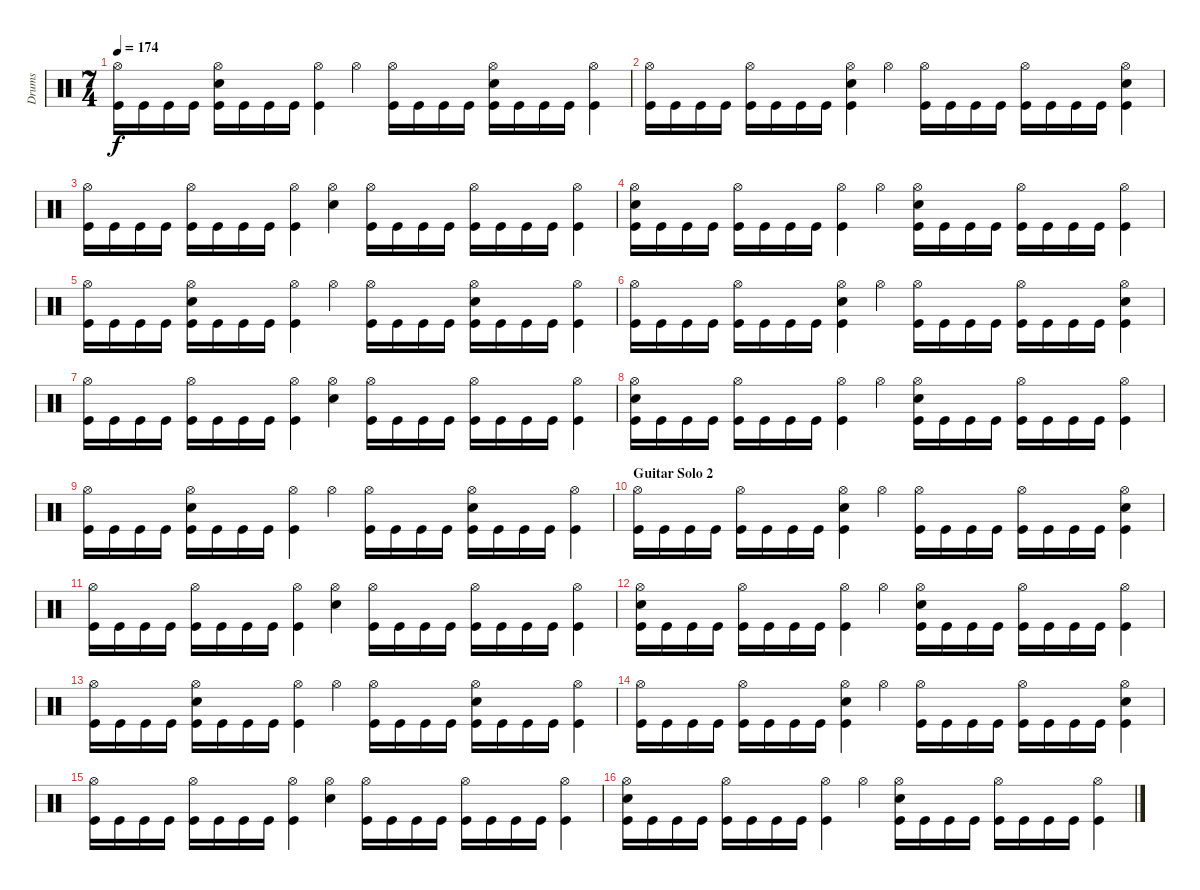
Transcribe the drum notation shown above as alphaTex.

\track ("Drums" "Drums") {instrument percussion}
\staff {score}
\articulation defaults
\ts (7 4)
\tempo 174
\clef neutral
\ks c
("Hi-Hat (open)" "Kick (hit)").16{dy f} "Kick (hit)".16 "Kick (hit)".16 "Kick (hit)".16 ("Hi-Hat (open)" "Electric Snare (hit)" "Kick (hit)").16 "Kick (hit)".16 "Kick (hit)".16 "Kick (hit)".16 ("Hi-Hat (open)" "Kick (hit)").4 "Hi-Hat (open)".4 ("Hi-Hat (open)" "Kick (hit)").16 "Kick (hit)".16 "Kick (hit)".16 "Kick (hit)".16 ("Hi-Hat (open)" "Electric Snare (hit)" "Kick (hit)").16 "Kick (hit)".16 "Kick (hit)".16 "Kick (hit)".16 ("Hi-Hat (open)" "Kick (hit)").4 |
("Hi-Hat (open)" "Kick (hit)").16 "Kick (hit)".16 "Kick (hit)".16 "Kick (hit)".16 ("Hi-Hat (open)" "Kick (hit)").16 "Kick (hit)".16 "Kick (hit)".16 "Kick (hit)".16 ("Hi-Hat (open)" "Electric Snare (hit)" "Kick (hit)").4 "Hi-Hat (open)".4 ("Hi-Hat (open)" "Kick (hit)").16 "Kick (hit)".16 "Kick (hit)".16 "Kick (hit)".16 ("Hi-Hat (open)" "Kick (hit)").16 "Kick (hit)".16 "Kick (hit)".16 "Kick (hit)".16 ("Hi-Hat (open)" "Electric Snare (hit)" "Kick (hit)").4 |
("Hi-Hat (open)" "Kick (hit)").16 "Kick (hit)".16 "Kick (hit)".16 "Kick (hit)".16 ("Hi-Hat (open)" "Kick (hit)").16 "Kick (hit)".16 "Kick (hit)".16 "Kick (hit)".16 ("Hi-Hat (open)" "Kick (hit)").4 ("Hi-Hat (open)" "Electric Snare (hit)").4 ("Hi-Hat (open)" "Kick (hit)").16 "Kick (hit)".16 "Kick (hit)".16 "Kick (hit)".16 ("Hi-Hat (open)" "Kick (hit)").16 "Kick (hit)".16 "Kick (hit)".16 "Kick (hit)".16 ("Hi-Hat (open)" "Kick (hit)").4 |
("Hi-Hat (open)" "Electric Snare (hit)" "Kick (hit)").16 "Kick (hit)".16 "Kick (hit)".16 "Kick (hit)".16 ("Hi-Hat (open)" "Kick (hit)").16 "Kick (hit)".16 "Kick (hit)".16 "Kick (hit)".16 ("Hi-Hat (open)" "Kick (hit)").4 "Hi-Hat (open)".4 ("Hi-Hat (open)" "Electric Snare (hit)" "Kick (hit)").16 "Kick (hit)".16 "Kick (hit)".16 "Kick (hit)".16 ("Hi-Hat (open)" "Kick (hit)").16 "Kick (hit)".16 "Kick (hit)".16 "Kick (hit)".16 ("Hi-Hat (open)" "Kick (hit)").4 |
("Hi-Hat (open)" "Kick (hit)").16 "Kick (hit)".16 "Kick (hit)".16 "Kick (hit)".16 ("Hi-Hat (open)" "Electric Snare (hit)" "Kick (hit)").16 "Kick (hit)".16 "Kick (hit)".16 "Kick (hit)".16 ("Hi-Hat (open)" "Kick (hit)").4 "Hi-Hat (open)".4 ("Hi-Hat (open)" "Kick (hit)").16 "Kick (hit)".16 "Kick (hit)".16 "Kick (hit)".16 ("Hi-Hat (open)" "Electric Snare (hit)" "Kick (hit)").16 "Kick (hit)".16 "Kick (hit)".16 "Kick (hit)".16 ("Hi-Hat (open)" "Kick (hit)").4 |
("Hi-Hat (open)" "Kick (hit)").16 "Kick (hit)".16 "Kick (hit)".16 "Kick (hit)".16 ("Hi-Hat (open)" "Kick (hit)").16 "Kick (hit)".16 "Kick (hit)".16 "Kick (hit)".16 ("Hi-Hat (open)" "Electric Snare (hit)" "Kick (hit)").4 "Hi-Hat (open)".4 ("Hi-Hat (open)" "Kick (hit)").16 "Kick (hit)".16 "Kick (hit)".16 "Kick (hit)".16 ("Hi-Hat (open)" "Kick (hit)").16 "Kick (hit)".16 "Kick (hit)".16 "Kick (hit)".16 ("Hi-Hat (open)" "Electric Snare (hit)" "Kick (hit)").4 |
("Hi-Hat (open)" "Kick (hit)").16 "Kick (hit)".16 "Kick (hit)".16 "Kick (hit)".16 ("Hi-Hat (open)" "Kick (hit)").16 "Kick (hit)".16 "Kick (hit)".16 "Kick (hit)".16 ("Hi-Hat (open)" "Kick (hit)").4 ("Hi-Hat (open)" "Electric Snare (hit)").4 ("Hi-Hat (open)" "Kick (hit)").16 "Kick (hit)".16 "Kick (hit)".16 "Kick (hit)".16 ("Hi-Hat (open)" "Kick (hit)").16 "Kick (hit)".16 "Kick (hit)".16 "Kick (hit)".16 ("Hi-Hat (open)" "Kick (hit)").4 |
("Hi-Hat (open)" "Electric Snare (hit)" "Kick (hit)").16 "Kick (hit)".16 "Kick (hit)".16 "Kick (hit)".16 ("Hi-Hat (open)" "Kick (hit)").16 "Kick (hit)".16 "Kick (hit)".16 "Kick (hit)".16 ("Hi-Hat (open)" "Kick (hit)").4 "Hi-Hat (open)".4 ("Hi-Hat (open)" "Electric Snare (hit)" "Kick (hit)").16 "Kick (hit)".16 "Kick (hit)".16 "Kick (hit)".16 ("Hi-Hat (open)" "Kick (hit)").16 "Kick (hit)".16 "Kick (hit)".16 "Kick (hit)".16 ("Hi-Hat (open)" "Kick (hit)").4 |
("Hi-Hat (open)" "Kick (hit)").16 "Kick (hit)".16 "Kick (hit)".16 "Kick (hit)".16 ("Hi-Hat (open)" "Electric Snare (hit)" "Kick (hit)").16 "Kick (hit)".16 "Kick (hit)".16 "Kick (hit)".16 ("Hi-Hat (open)" "Kick (hit)").4 "Hi-Hat (open)".4 ("Hi-Hat (open)" "Kick (hit)").16 "Kick (hit)".16 "Kick (hit)".16 "Kick (hit)".16 ("Hi-Hat (open)" "Electric Snare (hit)" "Kick (hit)").16 "Kick (hit)".16 "Kick (hit)".16 "Kick (hit)".16 ("Hi-Hat (open)" "Kick (hit)").4 |
\section ("" "Guitar Solo 2")
("Hi-Hat (open)" "Kick (hit)").16 "Kick (hit)".16 "Kick (hit)".16 "Kick (hit)".16 ("Hi-Hat (open)" "Kick (hit)").16 "Kick (hit)".16 "Kick (hit)".16 "Kick (hit)".16 ("Hi-Hat (open)" "Electric Snare (hit)" "Kick (hit)").4 "Hi-Hat (open)".4 ("Hi-Hat (open)" "Kick (hit)").16 "Kick (hit)".16 "Kick (hit)".16 "Kick (hit)".16 ("Hi-Hat (open)" "Kick (hit)").16 "Kick (hit)".16 "Kick (hit)".16 "Kick (hit)".16 ("Hi-Hat (open)" "Electric Snare (hit)" "Kick (hit)").4 |
("Hi-Hat (open)" "Kick (hit)").16 "Kick (hit)".16 "Kick (hit)".16 "Kick (hit)".16 ("Hi-Hat (open)" "Kick (hit)").16 "Kick (hit)".16 "Kick (hit)".16 "Kick (hit)".16 ("Hi-Hat (open)" "Kick (hit)").4 ("Hi-Hat (open)" "Electric Snare (hit)").4 ("Hi-Hat (open)" "Kick (hit)").16 "Kick (hit)".16 "Kick (hit)".16 "Kick (hit)".16 ("Hi-Hat (open)" "Kick (hit)").16 "Kick (hit)".16 "Kick (hit)".16 "Kick (hit)".16 ("Hi-Hat (open)" "Kick (hit)").4 |
("Hi-Hat (open)" "Electric Snare (hit)" "Kick (hit)").16 "Kick (hit)".16 "Kick (hit)".16 "Kick (hit)".16 ("Hi-Hat (open)" "Kick (hit)").16 "Kick (hit)".16 "Kick (hit)".16 "Kick (hit)".16 ("Hi-Hat (open)" "Kick (hit)").4 "Hi-Hat (open)".4 ("Hi-Hat (open)" "Electric Snare (hit)" "Kick (hit)").16 "Kick (hit)".16 "Kick (hit)".16 "Kick (hit)".16 ("Hi-Hat (open)" "Kick (hit)").16 "Kick (hit)".16 "Kick (hit)".16 "Kick (hit)".16 ("Hi-Hat (open)" "Kick (hit)").4 |
("Hi-Hat (open)" "Kick (hit)").16 "Kick (hit)".16 "Kick (hit)".16 "Kick (hit)".16 ("Hi-Hat (open)" "Electric Snare (hit)" "Kick (hit)").16 "Kick (hit)".16 "Kick (hit)".16 "Kick (hit)".16 ("Hi-Hat (open)" "Kick (hit)").4 "Hi-Hat (open)".4 ("Hi-Hat (open)" "Kick (hit)").16 "Kick (hit)".16 "Kick (hit)".16 "Kick (hit)".16 ("Hi-Hat (open)" "Electric Snare (hit)" "Kick (hit)").16 "Kick (hit)".16 "Kick (hit)".16 "Kick (hit)".16 ("Hi-Hat (open)" "Kick (hit)").4 |
("Hi-Hat (open)" "Kick (hit)").16 "Kick (hit)".16 "Kick (hit)".16 "Kick (hit)".16 ("Hi-Hat (open)" "Kick (hit)").16 "Kick (hit)".16 "Kick (hit)".16 "Kick (hit)".16 ("Hi-Hat (open)" "Electric Snare (hit)" "Kick (hit)").4 "Hi-Hat (open)".4 ("Hi-Hat (open)" "Kick (hit)").16 "Kick (hit)".16 "Kick (hit)".16 "Kick (hit)".16 ("Hi-Hat (open)" "Kick (hit)").16 "Kick (hit)".16 "Kick (hit)".16 "Kick (hit)".16 ("Hi-Hat (open)" "Electric Snare (hit)" "Kick (hit)").4 |
("Hi-Hat (open)" "Kick (hit)").16 "Kick (hit)".16 "Kick (hit)".16 "Kick (hit)".16 ("Hi-Hat (open)" "Kick (hit)").16 "Kick (hit)".16 "Kick (hit)".16 "Kick (hit)".16 ("Hi-Hat (open)" "Kick (hit)").4 ("Hi-Hat (open)" "Electric Snare (hit)").4 ("Hi-Hat (open)" "Kick (hit)").16 "Kick (hit)".16 "Kick (hit)".16 "Kick (hit)".16 ("Hi-Hat (open)" "Kick (hit)").16 "Kick (hit)".16 "Kick (hit)".16 "Kick (hit)".16 ("Hi-Hat (open)" "Kick (hit)").4 |
("Hi-Hat (open)" "Electric Snare (hit)" "Kick (hit)").16 "Kick (hit)".16 "Kick (hit)".16 "Kick (hit)".16 ("Hi-Hat (open)" "Kick (hit)").16 "Kick (hit)".16 "Kick (hit)".16 "Kick (hit)".16 ("Hi-Hat (open)" "Kick (hit)").4 "Hi-Hat (open)".4 ("Hi-Hat (open)" "Electric Snare (hit)" "Kick (hit)").16 "Kick (hit)".16 "Kick (hit)".16 "Kick (hit)".16 ("Hi-Hat (open)" "Kick (hit)").16 "Kick (hit)".16 "Kick (hit)".16 "Kick (hit)".16 ("Hi-Hat (open)" "Kick (hit)").4
